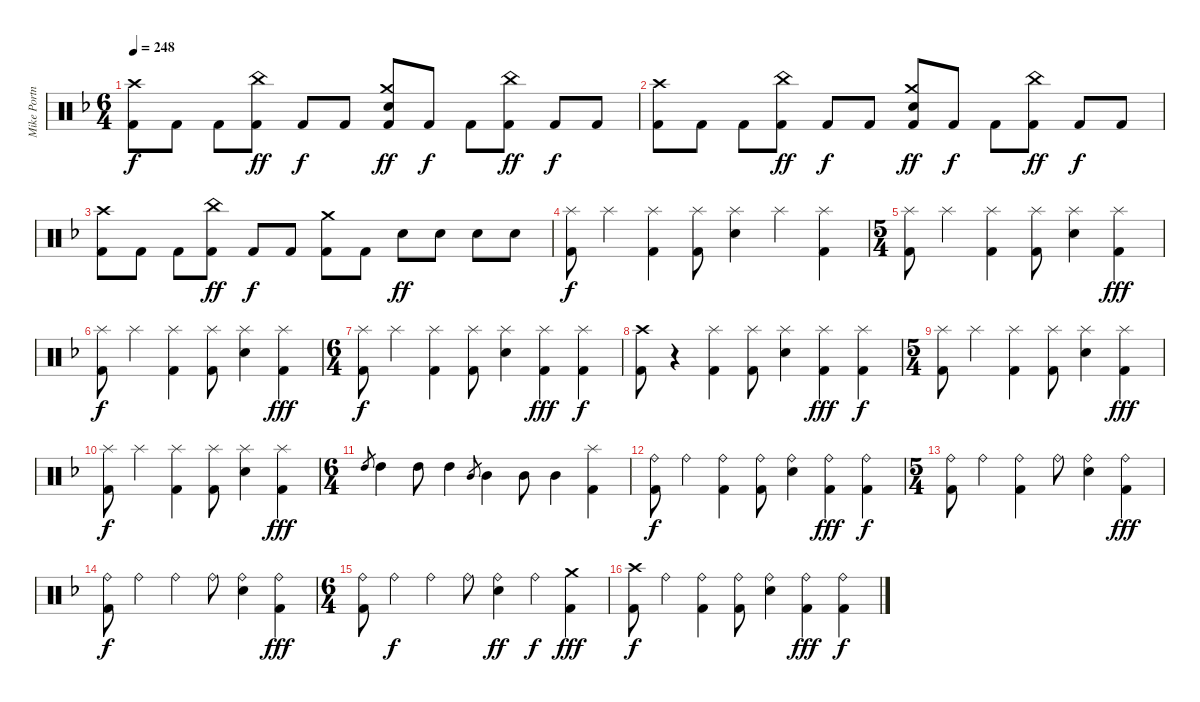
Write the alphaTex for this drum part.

\track ("Mike Portnoy Drums" "Mike Portn") {instrument percussion}
\staff {score}
\articulation defaults
\ts (6 4)
\tempo 248
\clef neutral
\ks dminor
("Crash high (hit)" "Kick (hit) 2").8{dy f} "Kick (hit) 2".8 "Kick (hit) 2".8 ("China (hit)" "Kick (hit) 2").8{dy ff} "Kick (hit) 2".8{dy f} "Kick (hit) 2".8 ("Crash medium (hit)" "Electric Snare (hit)" "Kick (hit) 2").8{dy ff} "Kick (hit) 2".8{dy f} "Kick (hit) 2".8 ("China (hit)" "Kick (hit) 2").8{dy ff} "Kick (hit) 2".8{dy f} "Kick (hit) 2".8 |
("Crash high (hit)" "Kick (hit) 2").8 "Kick (hit) 2".8 "Kick (hit) 2".8 ("China (hit)" "Kick (hit) 2").8{dy ff} "Kick (hit) 2".8{dy f} "Kick (hit) 2".8 ("Crash medium (hit)" "Electric Snare (hit)" "Kick (hit) 2").8{dy ff} "Kick (hit) 2".8{dy f} "Kick (hit) 2".8 ("China (hit)" "Kick (hit) 2").8{dy ff} "Kick (hit) 2".8{dy f} "Kick (hit) 2".8 |
("Crash high (hit)" "Kick (hit) 2").8 "Kick (hit) 2".8 "Kick (hit) 2".8 ("China (hit)" "Kick (hit) 2").8{dy ff} "Kick (hit) 2".8{dy f} "Kick (hit) 2".8 ("Crash medium (hit)" "Kick (hit) 2").8 "Kick (hit) 2".8 "Electric Snare (hit)".8{dy ff} "Electric Snare (hit)".8 "Electric Snare (hit)".8 "Electric Snare (hit)".8 |
("Splash (hit)" "Kick (hit) 2").8{dy f} "Splash (hit)".4 ("Splash (hit)" "Kick (hit) 2").4 ("Splash (hit)" "Kick (hit) 2").8 ("Splash (hit)" "Electric Snare (hit)").4 "Splash (hit)".4 ("Splash (hit)" "Kick (hit) 2").4 |
\ts (5 4)
("Splash (hit)" "Kick (hit) 2").8 "Splash (hit)".4 ("Splash (hit)" "Kick (hit) 2").4 ("Splash (hit)" "Kick (hit) 2").8 ("Splash (hit)" "Electric Snare (hit)").4 ("Splash (hit)" "Kick (hit) 2").4{dy fff} |
("Splash (hit)" "Kick (hit) 2").8{dy f} "Splash (hit)".4 ("Splash (hit)" "Kick (hit) 2").4 ("Splash (hit)" "Kick (hit) 2").8 ("Splash (hit)" "Electric Snare (hit)").4 ("Splash (hit)" "Kick (hit) 2").4{dy fff} |
\ts (6 4)
("Splash (hit)" "Kick (hit) 2").8{dy f} "Splash (hit)".4 ("Splash (hit)" "Kick (hit) 2").4 ("Splash (hit)" "Kick (hit) 2").8 ("Splash (hit)" "Electric Snare (hit)").4 ("Splash (hit)" "Kick (hit) 2").4{dy fff} ("Splash (hit)" "Kick (hit) 2").4{dy f} |
("Crash high (hit)" "Kick (hit) 2").8 r.4 ("Splash (hit)" "Kick (hit) 2").4 ("Splash (hit)" "Kick (hit) 2").8 ("Splash (hit)" "Electric Snare (hit)").4 ("Splash (hit)" "Kick (hit) 2").4{dy fff} ("Splash (hit)" "Kick (hit) 2").4{dy f} |
\ts (5 4)
("Splash (hit)" "Kick (hit) 2").8 "Splash (hit)".4 ("Splash (hit)" "Kick (hit) 2").4 ("Splash (hit)" "Kick (hit) 2").8 ("Splash (hit)" "Electric Snare (hit)").4 ("Splash (hit)" "Kick (hit) 2").4{dy fff} |
("Splash (hit)" "Kick (hit) 2").8{dy f} "Splash (hit)".4 ("Splash (hit)" "Kick (hit) 2").4 ("Splash (hit)" "Kick (hit) 2").8 ("Splash (hit)" "Electric Snare (hit)").4 ("Splash (hit)" "Kick (hit) 2").4{dy fff} |
\ts (6 4)
"High Tom (hit)".8{gr} "High Tom (hit)".4 "High Tom (hit)".8 "High Tom (hit)".4 "Mid Tom (hit)".8{gr} "Mid Tom (hit)".4 "Mid Tom (hit)".8 "Mid Tom (hit)".4 ("Splash (hit)" "Kick (hit) 2").4 |
("Ride (bell)" "Kick (hit) 2").8{dy f} "Ride (bell)".4 ("Ride (bell)" "Kick (hit) 2").4 ("Ride (bell)" "Kick (hit) 2").8 ("Ride (bell)" "Electric Snare (hit)").4 ("Ride (bell)" "Kick (hit) 2").4{dy fff} ("Ride (bell)" "Kick (hit) 2").4{dy f} |
\ts (5 4)
("Ride (bell)" "Kick (hit) 2").8 "Ride (bell)".4 ("Ride (bell)" "Kick (hit) 2").4 "Ride (bell)".8 ("Ride (bell)" "Electric Snare (hit)").4 ("Ride (bell)" "Kick (hit) 2").4{dy fff} |
("Ride (bell)" "Kick (hit) 2").8{dy f} "Ride (bell)".4 "Ride (bell)".4 "Ride (bell)".8 ("Ride (bell)" "Electric Snare (hit)").4 ("Ride (bell)" "Kick (hit) 2").4{dy fff} |
\ts (6 4)
("Ride (bell)" "Kick (hit) 2").8 "Ride (bell)".4{dy f} "Ride (bell)".4 "Ride (bell)".8 ("Ride (bell)" "Electric Snare (hit)").4{dy ff} "Ride (bell)".4{dy f} ("Crash medium (hit)" "Kick (hit) 2").4{dy fff} |
("Crash high (hit)" "Kick (hit) 2").8{dy f} "Ride (bell)".4 ("Ride (bell)" "Kick (hit) 2").4 ("Ride (bell)" "Kick (hit) 2").8 ("Ride (bell)" "Electric Snare (hit)").4 ("Ride (bell)" "Kick (hit) 2").4{dy fff} ("Ride (bell)" "Kick (hit) 2").4{dy f}
